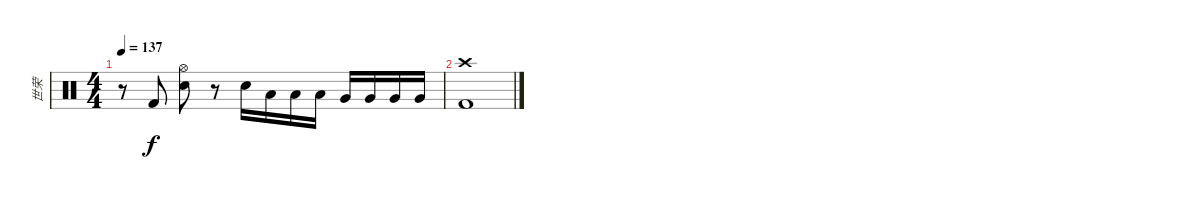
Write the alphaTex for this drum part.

\track ("世荣" "世荣") {instrument percussion}
\staff {score}
\articulation defaults
\ts (4 4)
\tempo 137
\clef neutral
\ks c
r.8{dy f} "Kick (hit) 2".8 ("Hi-Hat (open)" "Electric Snare (hit)").8 r.8 "Electric Snare (hit)".16 "Low Tom (hit)".16 "Low Tom (hit)".16 "Low Tom (hit)".16 "Very Low Tom (hit)".16 "Very Low Tom (hit)".16 "Very Low Tom (hit)".16 "Very Low Tom (hit)".16 |
("Crash high (hit)" "Kick (hit) 2").1
